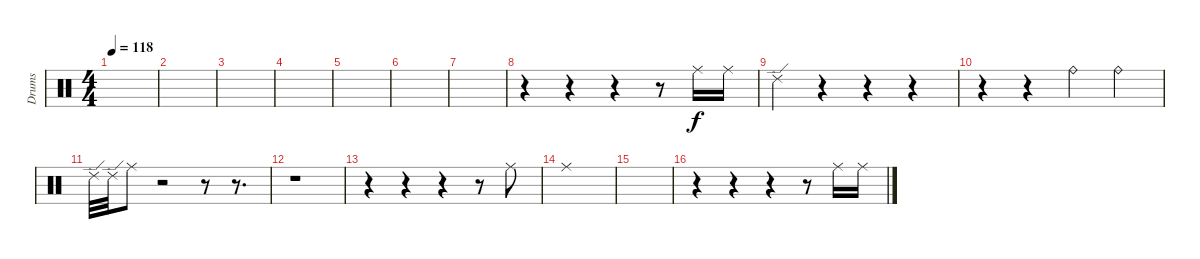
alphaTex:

\track ("Drums" "Drums") {instrument percussion}
\staff {score}
\articulation defaults
\ts (4 4)
\tempo 118
\clef neutral
\ks c
|
|
|
|
|
|
|
r.4 r.4 r.4 r.8 "Ride (middle)".16 "Ride (middle)".16 |
"Ride (edge) 2".4 r.4 r.4 r.4 |
r.4 r.4 "Ride (bell)".4 "Ride (bell)".4 |
"Ride (edge) 2".32 "Ride (edge) 2".32 "Ride (middle)".8 r.2 r.8 r.8{d} |
r.1 |
r.4 r.4 r.4 r.8 "Ride (middle)".8 |
"Ride (middle)".1 |
|
r.4 r.4 r.4 r.8 "Ride (middle)".16 "Ride (middle)".16
